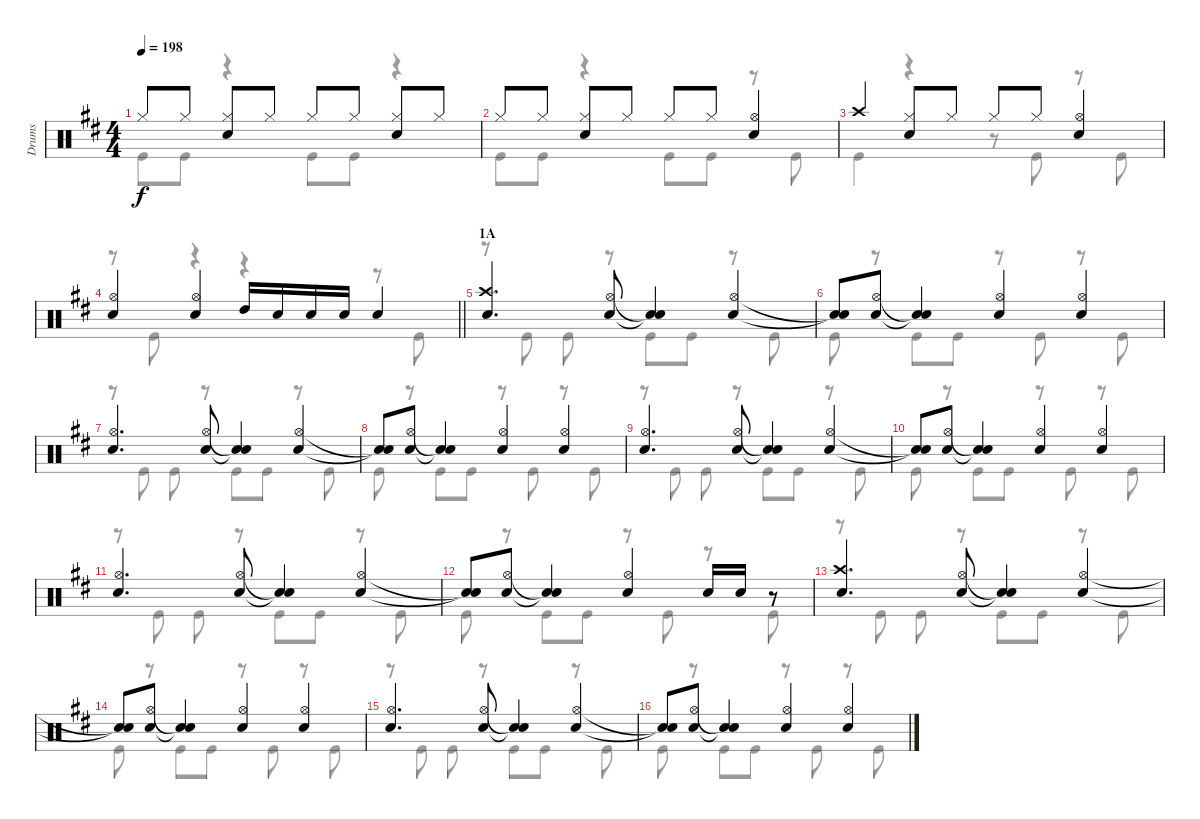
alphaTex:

\track ("Drums" "Drums") {instrument percussion}
\staff {score}
\articulation defaults
\voice
\ts (4 4)
\tempo 198
\clef neutral
\ks d "Hi-Hat (closed)".8{dy f} "Hi-Hat (closed)".8
("Hi-Hat (closed)" "Snare (hit) 2").8 "Hi-Hat (closed)".8 "Hi-Hat (closed)".8 "Hi-Hat (closed)".8 ("Hi-Hat (closed)" "Snare (hit) 2").8 "Hi-Hat (closed)".8 |
"Hi-Hat (closed)".8 "Hi-Hat (closed)".8 ("Hi-Hat (closed)" "Snare (hit) 2").8 "Hi-Hat (closed)".8 "Hi-Hat (closed)".8 "Hi-Hat (closed)".8 ("Hi-Hat (open)" "Snare (hit) 2").4 |
"Crash high (hit)".4 ("Hi-Hat (closed)" "Snare (hit) 2").8 "Hi-Hat (closed)".8 "Hi-Hat (closed)".8 "Hi-Hat (closed)".8 ("Hi-Hat (open)" "Snare (hit) 2").4 |
\barLineRight lightlight
("Hi-Hat (open)" "Snare (hit) 2").4 ("Hi-Hat (open)" "Snare (hit) 2").4 "High Tom (hit)".16 "Snare (hit) 2".16 "Snare (hit) 2".16 "Snare (hit) 2".16 "Snare (hit) 2".4 |
\section ("" "1A")
("Crash high (hit)" "Snare (hit) 2").4{d} ("Hi-Hat (open)" "Snare (hit) 2").8 ("Snare (hit)"{t} "Snare (hit)"{t}).4 ("Hi-Hat (open)" "Snare (hit) 2").4 |
("Snare (hit)"{t} "Snare (hit)"{t}).8 ("Hi-Hat (open)" "Snare (hit) 2").8 ("Snare (hit)"{t} "Snare (hit)"{t}).4 ("Hi-Hat (open)" "Snare (hit) 2").4 ("Hi-Hat (open)" "Snare (hit) 2").4 |
("Hi-Hat (open)" "Snare (hit) 2").4{d} ("Hi-Hat (open)" "Snare (hit) 2").8 ("Snare (hit)"{t} "Snare (hit)"{t}).4 ("Hi-Hat (open)" "Snare (hit) 2").4 |
("Snare (hit)"{t} "Snare (hit)"{t}).8 ("Hi-Hat (open)" "Snare (hit) 2").8 ("Snare (hit)"{t} "Snare (hit)"{t}).4 ("Hi-Hat (open)" "Snare (hit) 2").4 ("Hi-Hat (open)" "Snare (hit) 2").4 |
("Hi-Hat (open)" "Snare (hit) 2").4{d} ("Hi-Hat (open)" "Snare (hit) 2").8 ("Snare (hit)"{t} "Snare (hit)"{t}).4 ("Hi-Hat (open)" "Snare (hit) 2").4 |
("Snare (hit)"{t} "Snare (hit)"{t}).8 ("Hi-Hat (open)" "Snare (hit) 2").8 ("Snare (hit)"{t} "Snare (hit)"{t}).4 ("Hi-Hat (open)" "Snare (hit) 2").4 ("Hi-Hat (open)" "Snare (hit) 2").4 |
("Hi-Hat (open)" "Snare (hit) 2").4{d} ("Hi-Hat (open)" "Snare (hit) 2").8 ("Snare (hit)"{t} "Snare (hit)"{t}).4 ("Hi-Hat (open)" "Snare (hit) 2").4 |
("Snare (hit)"{t} "Snare (hit)"{t}).8 ("Hi-Hat (open)" "Snare (hit) 2").8 ("Snare (hit)"{t} "Snare (hit)"{t}).4 ("Hi-Hat (open)" "Snare (hit) 2").4 "Snare (hit) 2".16 "Snare (hit) 2".16 r.8 |
("Crash high (hit)" "Snare (hit) 2").4{d} ("Hi-Hat (open)" "Snare (hit) 2").8 ("Snare (hit)"{t} "Snare (hit)"{t}).4 ("Hi-Hat (open)" "Snare (hit) 2").4 |
("Snare (hit)"{t} "Snare (hit)"{t}).8 ("Hi-Hat (open)" "Snare (hit) 2").8 ("Snare (hit)"{t} "Snare (hit)"{t}).4 ("Hi-Hat (open)" "Snare (hit) 2").4 ("Hi-Hat (open)" "Snare (hit) 2").4 |
("Hi-Hat (open)" "Snare (hit) 2").4{d} ("Hi-Hat (open)" "Snare (hit) 2").8 ("Snare (hit)"{t} "Snare (hit)"{t}).4 ("Hi-Hat (open)" "Snare (hit) 2").4 |
("Snare (hit)"{t} "Snare (hit)"{t}).8 ("Hi-Hat (open)" "Snare (hit) 2").8 ("Snare (hit)"{t} "Snare (hit)"{t}).4 ("Hi-Hat (open)" "Snare (hit) 2").4 ("Hi-Hat (open)" "Snare (hit) 2").4
\voice
\clef neutral
\ottava regular
\simile none
\ks d "Kick (hit)"{t}.8{dy f} "Kick (hit)".8
r.4 "Kick (hit)".8 "Kick (hit)".8 r.4 |
"Kick (hit)".8 "Kick (hit)".8 r.4 "Kick (hit)".8 "Kick (hit)".8 r.8 "Kick (hit)".8 |
"Kick (hit)".4 r.4 r.8 "Kick (hit)".8 r.8 "Kick (hit)".8 |
\barLineRight lightlight
r.8 "Kick (hit)".8 r.4 r.4 r.8 "Kick (hit)".8 |
r.8 "Kick (hit)".8 "Kick (hit)".8 r.8 "Kick (hit)".8 "Kick (hit)".8 r.8 "Kick (hit)".8 |
"Kick (hit)".8 r.8 "Kick (hit)".8 "Kick (hit)".8 r.8 "Kick (hit)".8 r.8 "Kick (hit)".8 |
r.8 "Kick (hit)".8 "Kick (hit)".8 r.8 "Kick (hit)".8 "Kick (hit)".8 r.8 "Kick (hit)".8 |
"Kick (hit)".8 r.8 "Kick (hit)".8 "Kick (hit)".8 r.8 "Kick (hit)".8 r.8 "Kick (hit)".8 |
r.8 "Kick (hit)".8 "Kick (hit)".8 r.8 "Kick (hit)".8 "Kick (hit)".8 r.8 "Kick (hit)".8 |
"Kick (hit)".8 r.8 "Kick (hit)".8 "Kick (hit)".8 r.8 "Kick (hit)".8 r.8 "Kick (hit)".8 |
r.8 "Kick (hit)".8 "Kick (hit)".8 r.8 "Kick (hit)".8 "Kick (hit)".8 r.8 "Kick (hit)".8 |
"Kick (hit)".8 r.8 "Kick (hit)".8 "Kick (hit)".8 r.8 "Kick (hit)".8 r.8 "Kick (hit)".8 |
r.8 "Kick (hit)".8 "Kick (hit)".8 r.8 "Kick (hit)".8 "Kick (hit)".8 r.8 "Kick (hit)".8 |
"Kick (hit)".8 r.8 "Kick (hit)".8 "Kick (hit)".8 r.8 "Kick (hit)".8 r.8 "Kick (hit)".8 |
r.8 "Kick (hit)".8 "Kick (hit)".8 r.8 "Kick (hit)".8 "Kick (hit)".8 r.8 "Kick (hit)".8 |
"Kick (hit)".8 r.8 "Kick (hit)".8 "Kick (hit)".8 r.8 "Kick (hit)".8 r.8 "Kick (hit)".8
